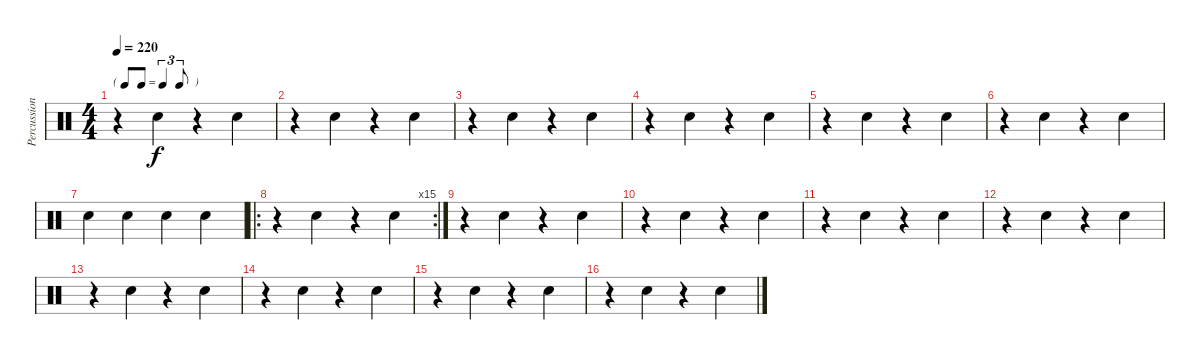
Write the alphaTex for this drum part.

\track ("Percussion" "Percussion") {instrument percussion}
\staff {score}
\articulation defaults
\ts (4 4)
\tf triplet8th
\tempo 220
\clef neutral
\ks c
r.4{dy f} "Snare (hit) 2".4 r.4 "Snare (hit) 2".4 |
r.4 "Snare (hit) 2".4 r.4 "Snare (hit) 2".4 |
r.4 "Snare (hit) 2".4 r.4 "Snare (hit) 2".4 |
r.4 "Snare (hit) 2".4 r.4 "Snare (hit) 2".4 |
r.4 "Snare (hit) 2".4 r.4 "Snare (hit) 2".4 |
r.4 "Snare (hit) 2".4 r.4 "Snare (hit) 2".4 |
"Snare (hit) 2".4 "Snare (hit) 2".4 "Snare (hit) 2".4 "Snare (hit) 2".4 |
\ro
\rc 15
r.4 "Snare (hit) 2".4 r.4 "Snare (hit) 2".4 |
r.4 "Snare (hit) 2".4 r.4 "Snare (hit) 2".4 |
r.4 "Snare (hit) 2".4 r.4 "Snare (hit) 2".4 |
r.4 "Snare (hit) 2".4 r.4 "Snare (hit) 2".4 |
r.4 "Snare (hit) 2".4 r.4 "Snare (hit) 2".4 |
r.4 "Snare (hit) 2".4 r.4 "Snare (hit) 2".4 |
r.4 "Snare (hit) 2".4 r.4 "Snare (hit) 2".4 |
r.4 "Snare (hit) 2".4 r.4 "Snare (hit) 2".4 |
r.4 "Snare (hit) 2".4 r.4 "Snare (hit) 2".4
